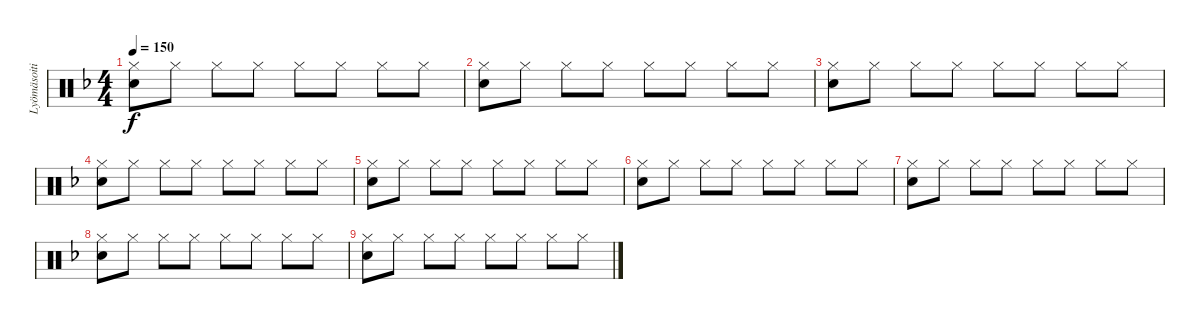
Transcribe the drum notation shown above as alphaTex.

\track ("Lyömäsoitin" "Lyömäsoiti") {instrument percussion}
\staff {score}
\articulation defaults
\ts (4 4)
\tempo 150
\clef neutral
\ks f
("Hi-Hat (closed)" "Electric Snare (hit)").8{dy f} "Hi-Hat (closed)".8 "Hi-Hat (closed)".8 "Hi-Hat (closed)".8 "Hi-Hat (closed)".8 "Hi-Hat (closed)".8 "Hi-Hat (closed)".8 "Hi-Hat (closed)".8 |
("Hi-Hat (closed)" "Electric Snare (hit)").8 "Hi-Hat (closed)".8 "Hi-Hat (closed)".8 "Hi-Hat (closed)".8 "Hi-Hat (closed)".8 "Hi-Hat (closed)".8 "Hi-Hat (closed)".8 "Hi-Hat (closed)".8 |
("Hi-Hat (closed)" "Electric Snare (hit)").8 "Hi-Hat (closed)".8 "Hi-Hat (closed)".8 "Hi-Hat (closed)".8 "Hi-Hat (closed)".8 "Hi-Hat (closed)".8 "Hi-Hat (closed)".8 "Hi-Hat (closed)".8 |
("Hi-Hat (closed)" "Electric Snare (hit)").8 "Hi-Hat (closed)".8 "Hi-Hat (closed)".8 "Hi-Hat (closed)".8 "Hi-Hat (closed)".8 "Hi-Hat (closed)".8 "Hi-Hat (closed)".8 "Hi-Hat (closed)".8 |
("Hi-Hat (closed)" "Electric Snare (hit)").8 "Hi-Hat (closed)".8 "Hi-Hat (closed)".8 "Hi-Hat (closed)".8 "Hi-Hat (closed)".8 "Hi-Hat (closed)".8 "Hi-Hat (closed)".8 "Hi-Hat (closed)".8 |
("Hi-Hat (closed)" "Electric Snare (hit)").8 "Hi-Hat (closed)".8 "Hi-Hat (closed)".8 "Hi-Hat (closed)".8 "Hi-Hat (closed)".8 "Hi-Hat (closed)".8 "Hi-Hat (closed)".8 "Hi-Hat (closed)".8 |
("Hi-Hat (closed)" "Electric Snare (hit)").8 "Hi-Hat (closed)".8 "Hi-Hat (closed)".8 "Hi-Hat (closed)".8 "Hi-Hat (closed)".8 "Hi-Hat (closed)".8 "Hi-Hat (closed)".8 "Hi-Hat (closed)".8 |
("Hi-Hat (closed)" "Electric Snare (hit)").8 "Hi-Hat (closed)".8 "Hi-Hat (closed)".8 "Hi-Hat (closed)".8 "Hi-Hat (closed)".8 "Hi-Hat (closed)".8 "Hi-Hat (closed)".8 "Hi-Hat (closed)".8 |
("Hi-Hat (closed)" "Electric Snare (hit)").8 "Hi-Hat (closed)".8 "Hi-Hat (closed)".8 "Hi-Hat (closed)".8 "Hi-Hat (closed)".8 "Hi-Hat (closed)".8 "Hi-Hat (closed)".8 "Hi-Hat (closed)".8
